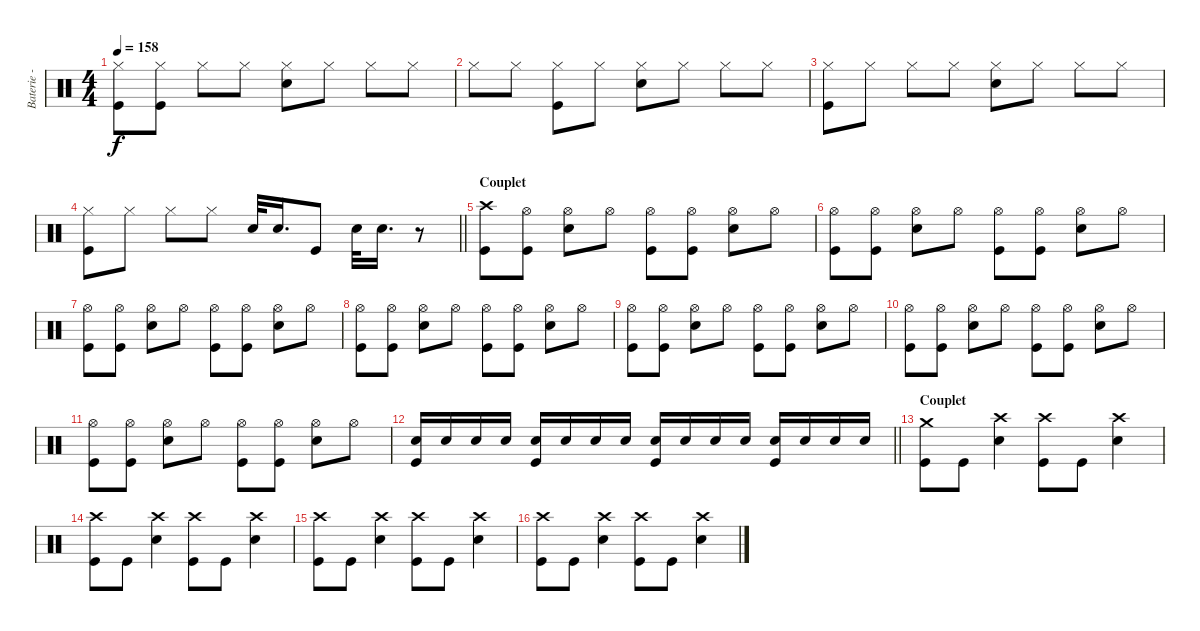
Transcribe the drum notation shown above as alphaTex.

\track ("Baterie - Alex" "Baterie - ") {instrument percussion}
\staff {score}
\articulation defaults
\ts (4 4)
\tempo 158
\clef neutral
\ks c
("Hi-Hat (closed)" "Kick (hit)").8{dy f} ("Hi-Hat (closed)" "Kick (hit)").8 "Hi-Hat (closed)".8 "Hi-Hat (closed)".8 ("Hi-Hat (closed)" "Electric Snare (hit)").8 "Hi-Hat (closed)".8 "Hi-Hat (closed)".8 "Hi-Hat (closed)".8 |
"Hi-Hat (closed)".8 "Hi-Hat (closed)".8 ("Hi-Hat (closed)" "Kick (hit)").8 "Hi-Hat (closed)".8 ("Hi-Hat (closed)" "Electric Snare (hit)").8 "Hi-Hat (closed)".8 "Hi-Hat (closed)".8 "Hi-Hat (closed)".8 |
("Hi-Hat (closed)" "Kick (hit)").8 "Hi-Hat (closed)".8 "Hi-Hat (closed)".8 "Hi-Hat (closed)".8 ("Hi-Hat (closed)" "Electric Snare (hit)").8 "Hi-Hat (closed)".8 "Hi-Hat (closed)".8 "Hi-Hat (closed)".8 |
\barLineRight lightlight
("Hi-Hat (closed)" "Kick (hit)").8 "Hi-Hat (closed)".8 "Hi-Hat (closed)".8 "Hi-Hat (closed)".8 "Electric Snare (hit)".32 "Electric Snare (hit)".16{d} "Kick (hit)".8 "Electric Snare (hit)".32 "Electric Snare (hit)".16{d} r.8 |
\section ("" "Couplet")
("Crash high (hit)" "Kick (hit)").8 ("Hi-Hat (open)" "Kick (hit)").8 ("Hi-Hat (open)" "Electric Snare (hit)").8 "Hi-Hat (open)".8 ("Hi-Hat (open)" "Kick (hit)").8 ("Hi-Hat (open)" "Kick (hit)").8 ("Hi-Hat (open)" "Electric Snare (hit)").8 "Hi-Hat (open)".8 |
("Hi-Hat (open)" "Kick (hit)").8 ("Hi-Hat (open)" "Kick (hit)").8 ("Hi-Hat (open)" "Electric Snare (hit)").8 "Hi-Hat (open)".8 ("Hi-Hat (open)" "Kick (hit)").8 ("Hi-Hat (open)" "Kick (hit)").8 ("Hi-Hat (open)" "Electric Snare (hit)").8 "Hi-Hat (open)".8 |
("Hi-Hat (open)" "Kick (hit)").8 ("Hi-Hat (open)" "Kick (hit)").8 ("Hi-Hat (open)" "Electric Snare (hit)").8 "Hi-Hat (open)".8 ("Hi-Hat (open)" "Kick (hit)").8 ("Hi-Hat (open)" "Kick (hit)").8 ("Hi-Hat (open)" "Electric Snare (hit)").8 "Hi-Hat (open)".8 |
("Hi-Hat (open)" "Kick (hit)").8 ("Hi-Hat (open)" "Kick (hit)").8 ("Hi-Hat (open)" "Electric Snare (hit)").8 "Hi-Hat (open)".8 ("Hi-Hat (open)" "Kick (hit)").8 ("Hi-Hat (open)" "Kick (hit)").8 ("Hi-Hat (open)" "Electric Snare (hit)").8 "Hi-Hat (open)".8 |
("Hi-Hat (open)" "Kick (hit)").8 ("Hi-Hat (open)" "Kick (hit)").8 ("Hi-Hat (open)" "Electric Snare (hit)").8 "Hi-Hat (open)".8 ("Hi-Hat (open)" "Kick (hit)").8 ("Hi-Hat (open)" "Kick (hit)").8 ("Hi-Hat (open)" "Electric Snare (hit)").8 "Hi-Hat (open)".8 |
("Hi-Hat (open)" "Kick (hit)").8 ("Hi-Hat (open)" "Kick (hit)").8 ("Hi-Hat (open)" "Electric Snare (hit)").8 "Hi-Hat (open)".8 ("Hi-Hat (open)" "Kick (hit)").8 ("Hi-Hat (open)" "Kick (hit)").8 ("Hi-Hat (open)" "Electric Snare (hit)").8 "Hi-Hat (open)".8 |
("Hi-Hat (open)" "Kick (hit)").8 ("Hi-Hat (open)" "Kick (hit)").8 ("Hi-Hat (open)" "Electric Snare (hit)").8 "Hi-Hat (open)".8 ("Hi-Hat (open)" "Kick (hit)").8 ("Hi-Hat (open)" "Kick (hit)").8 ("Hi-Hat (open)" "Electric Snare (hit)").8 "Hi-Hat (open)".8 |
\barLineRight lightlight
("Electric Snare (hit)" "Kick (hit)").16 "Electric Snare (hit)".16 "Electric Snare (hit)".16 "Electric Snare (hit)".16 ("Electric Snare (hit)" "Kick (hit)").16 "Electric Snare (hit)".16 "Electric Snare (hit)".16 "Electric Snare (hit)".16 ("Electric Snare (hit)" "Kick (hit)").16 "Electric Snare (hit)".16 "Electric Snare (hit)".16 "Electric Snare (hit)".16 ("Electric Snare (hit)" "Kick (hit)").16 "Electric Snare (hit)".16 "Electric Snare (hit)".16 "Electric Snare (hit)".16 |
\section ("" "Couplet")
("Crash medium (hit)" "Kick (hit)").8 "Kick (hit)".8 ("Crash high (hit)" "Electric Snare (hit)").4 ("Crash high (hit)" "Kick (hit)").8 "Kick (hit)".8 ("Crash high (hit)" "Electric Snare (hit)").4 |
("Crash high (hit)" "Kick (hit)").8 "Kick (hit)".8 ("Crash high (hit)" "Electric Snare (hit)").4 ("Crash high (hit)" "Kick (hit)").8 "Kick (hit)".8 ("Crash high (hit)" "Electric Snare (hit)").4 |
("Crash high (hit)" "Kick (hit)").8 "Kick (hit)".8 ("Crash high (hit)" "Electric Snare (hit)").4 ("Crash high (hit)" "Kick (hit)").8 "Kick (hit)".8 ("Crash high (hit)" "Electric Snare (hit)").4 |
("Crash high (hit)" "Kick (hit)").8 "Kick (hit)".8 ("Crash high (hit)" "Electric Snare (hit)").4 ("Crash high (hit)" "Kick (hit)").8 "Kick (hit)".8 ("Crash high (hit)" "Electric Snare (hit)").4
